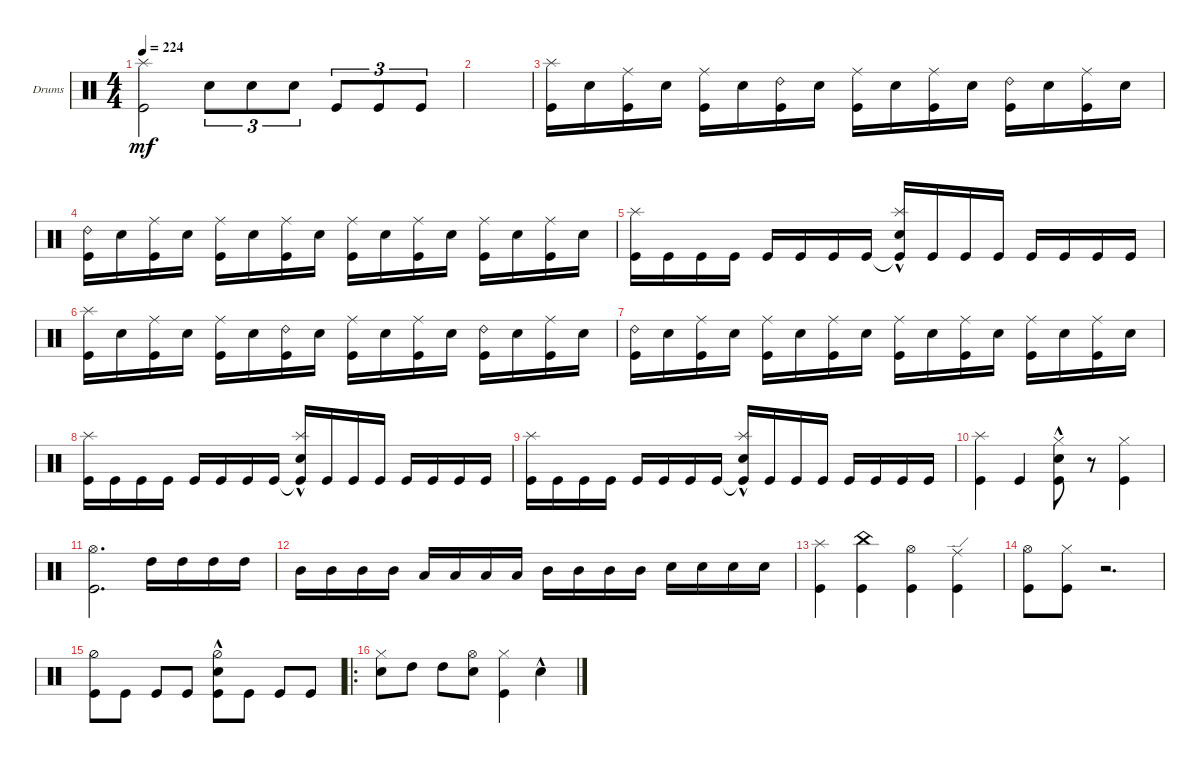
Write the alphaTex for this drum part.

\defaultSystemsLayout 4
\bracketExtendMode groupsimilarinstruments
\firstSystemTrackNameOrientation horizontal
\otherSystemsTrackNameOrientation horizontal
\track ("Drumkit" "Drums") {instrument percussion}
\staff {score}
\articulation defaults
\ts (4 4)
\tempo 224
\clef neutral
\scale
0.333333
\ks c
("Kick (hit)" "Splash (hit)").2{dy mf} "Snare (hit) 2".8{tu (3 2)} "Snare (hit) 2".8{tu (3 2)} "Snare (hit) 2".8{tu (3 2)} "Kick (hit)".8{tu (3 2)} "Kick (hit)".8{tu (3 2)} "Kick (hit)".8{tu (3 2)} |
\scale
0.333333 |
\scale
0.333333 ("Splash (hit)" "Kick (hit)").16 "Snare (hit) 2".16 ("Kick (hit)" "Ride (middle)").16 "Snare (hit) 2".16 ("Kick (hit)" "Ride (middle)").16 "Snare (hit) 2".16 ("Kick (hit)" "Ride (bell) 2").16 "Snare (hit) 2".16 ("Kick (hit)" "Ride (middle)").16 "Snare (hit) 2".16 ("Kick (hit)" "Ride (middle)").16 "Snare (hit) 2".16 ("Kick (hit)" "Ride (bell) 2").16 "Snare (hit) 2".16 ("Kick (hit)" "Ride (middle)").16 "Snare (hit) 2".16 |
\scale
0.333333 ("Kick (hit)" "Ride (bell) 2").16 "Snare (hit) 2".16 ("Kick (hit)" "Ride (middle)").16 "Snare (hit) 2".16 ("Kick (hit)" "Ride (middle)").16 "Snare (hit) 2".16 ("Kick (hit)" "Ride (middle)").16 "Snare (hit) 2".16 ("Kick (hit)" "Ride (middle)").16 "Snare (hit) 2".16 ("Kick (hit)" "Ride (middle)").16 "Snare (hit) 2".16 ("Kick (hit)" "Ride (middle)").16 "Snare (hit) 2".16 ("Kick (hit)" "Ride (middle)").16 "Snare (hit) 2".16 |
\scale
0.333333 ("Kick (hit)" "Splash (hit)").16 "Kick (hit)".16 "Kick (hit)".16 "Kick (hit)".16 "Kick (hit)".16 "Kick (hit)".16 "Kick (hit)".16 "Kick (hit)".16 ("Kick (hit)"{t} "Splash (hit)" "Snare (hit) 2"{hac}).16 "Kick (hit)".16 "Kick (hit)".16 "Kick (hit)".16 "Kick (hit)".16 "Kick (hit)".16 "Kick (hit)".16 "Kick (hit)".16 |
\scale
0.333333 ("Splash (hit)" "Kick (hit)").16 "Snare (hit) 2".16 ("Kick (hit)" "Ride (middle)").16 "Snare (hit) 2".16 ("Kick (hit)" "Ride (middle)").16 "Snare (hit) 2".16 ("Kick (hit)" "Ride (bell) 2").16 "Snare (hit) 2".16 ("Kick (hit)" "Ride (middle)").16 "Snare (hit) 2".16 ("Kick (hit)" "Ride (middle)").16 "Snare (hit) 2".16 ("Kick (hit)" "Ride (bell) 2").16 "Snare (hit) 2".16 ("Kick (hit)" "Ride (middle)").16 "Snare (hit) 2".16 |
\scale
0.333333 ("Kick (hit)" "Ride (bell) 2").16 "Snare (hit) 2".16 ("Kick (hit)" "Ride (middle)").16 "Snare (hit) 2".16 ("Kick (hit)" "Ride (middle)").16 "Snare (hit) 2".16 ("Kick (hit)" "Ride (middle)").16 "Snare (hit) 2".16 ("Kick (hit)" "Ride (middle)").16 "Snare (hit) 2".16 ("Kick (hit)" "Ride (middle)").16 "Snare (hit) 2".16 ("Kick (hit)" "Ride (middle)").16 "Snare (hit) 2".16 ("Kick (hit)" "Ride (middle)").16 "Snare (hit) 2".16 |
\scale
0.333333 ("Kick (hit)" "Splash (hit)").16 "Kick (hit)".16 "Kick (hit)".16 "Kick (hit)".16 "Kick (hit)".16 "Kick (hit)".16 "Kick (hit)".16 "Kick (hit)".16 ("Kick (hit)"{t} "Splash (hit)" "Snare (hit) 2"{hac}).16 "Kick (hit)".16 "Kick (hit)".16 "Kick (hit)".16 "Kick (hit)".16 "Kick (hit)".16 "Kick (hit)".16 "Kick (hit)".16 |
\scale
0.333333 ("Kick (hit)" "Splash (hit)").16 "Kick (hit)".16 "Kick (hit)".16 "Kick (hit)".16 "Kick (hit)".16 "Kick (hit)".16 "Kick (hit)".16 "Kick (hit)".16 ("Kick (hit)"{t} "Splash (hit)" "Snare (hit) 2"{hac}).16 "Kick (hit)".16 "Kick (hit)".16 "Kick (hit)".16 "Kick (hit)".16 "Kick (hit)".16 "Kick (hit)".16 "Kick (hit)".16 |
\scale
0.333333 ("Splash (hit)" "Kick (hit)").4 "Kick (hit)".4 ("Kick (hit)" "Snare (hit) 2"{hac} "Hi-Hat (closed)").8 r.8 ("Kick (hit)" "Hi-Hat (closed)").4 |
\scale
0.333333 ("Kick (hit)" "Hi-Hat (open)").2{d} "High Tom (hit)".16 "High Tom (hit)".16 "High Tom (hit)".16 "High Tom (hit)".16 |
\scale
0.333333 "Mid Tom (hit)".16 "Mid Tom (hit)".16 "Mid Tom (hit)".16 "Mid Tom (hit)".16 "Low Tom (hit)".16 "Low Tom (hit)".16 "Low Tom (hit)".16 "Low Tom (hit)".16 "Mid Tom (hit)".16 "Mid Tom (hit)".16 "Mid Tom (hit)".16 "Mid Tom (hit)".16 "Snare (hit) 2".16 "Snare (hit) 2".16 "Snare (hit) 2".16 "Snare (hit) 2".16 |
\scale
0.333333 ("Splash (hit)" "Kick (hit)").4 ("China (hit)" "Kick (hit)").4 ("Hi-Hat (open)" "Kick (hit)").4 ("Ride (edge)" "Kick (hit)").4 |
\scale
0.333333 ("Hi-Hat (open)" "Kick (hit)").8 ("Hi-Hat (closed)" "Kick (hit)").8 r.2{d} |
\scale
0.333333 ("Kick (hit)" "Hi-Hat (half)").8 "Kick (hit)".8 "Kick (hit)".8 "Kick (hit)".8 ("Kick (hit)" "Hi-Hat (half)" "Snare (hit) 2"{hac}).8 "Kick (hit)".8 "Kick (hit)".8 "Kick (hit)".8 |
\ro
\scale
0.377778 ("Snare (hit) 2" "Hi-Hat (closed)").8 "High Tom (hit)".8 "High Tom (hit)".8 ("Snare (hit) 2" "Hi-Hat (open)").8 ("Kick (hit)" "Hi-Hat (closed)").4 "Snare (hit) 2"{hac}.4
